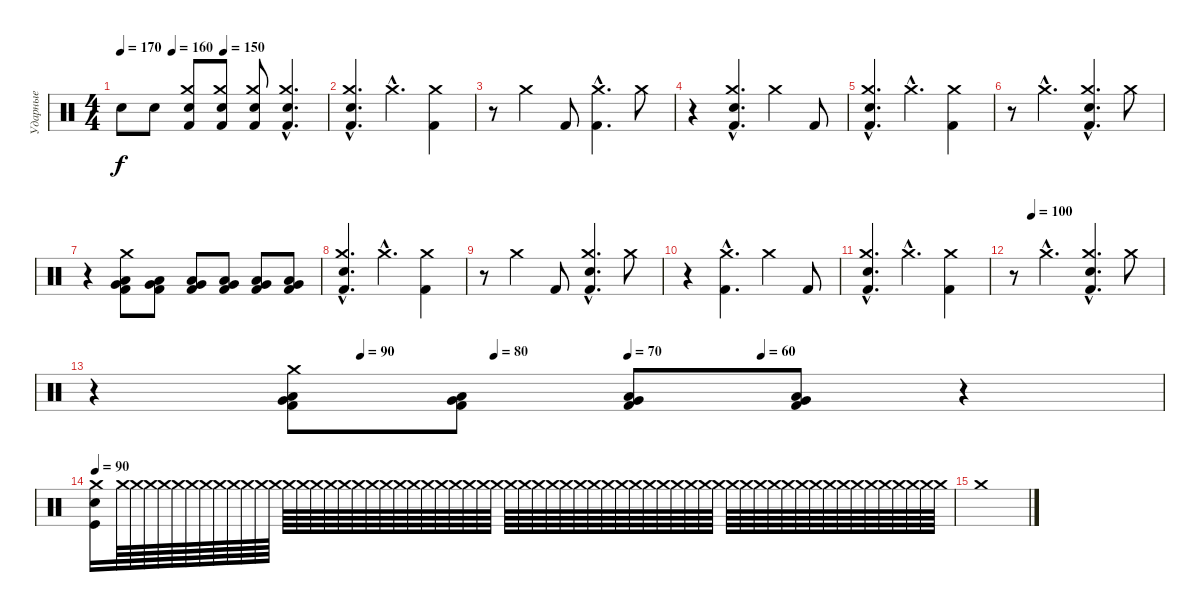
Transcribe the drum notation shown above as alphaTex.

\track ("Ударные" "Ударные") {instrument percussion}
\staff {score}
\articulation defaults
\ts (4 4)
\tempo 170
\tempo (160 0.25)
\tempo (150 0.5)
\clef neutral
\ks c "Snare (hit) 2".8{dy f} "Snare (hit) 2".8
("Crash medium (hit)" "Snare (hit) 2" "Kick (hit) 2").8 ("Crash medium (hit)" "Snare (hit) 2" "Kick (hit) 2").8 ("Crash medium (hit)" "Snare (hit) 2" "Kick (hit) 2").8 ("Crash medium (hit)"{hac} "Snare (hit) 2"{hac} "Kick (hit) 2"{hac}).4{d} |
("Snare (hit) 2"{hac} "Crash medium (hit)"{hac} "Kick (hit) 2"{hac}).4{d} "Crash medium (hit)"{hac}.4{d} ("Crash medium (hit)" "Kick (hit) 2").4 |
r.8 "Crash medium (hit)".4 "Kick (hit) 2".8 ("Crash medium (hit)"{hac} "Kick (hit) 2"{hac}).4{d} "Crash medium (hit)".8 |
r.4 ("Snare (hit) 2"{hac} "Crash medium (hit)"{hac} "Kick (hit) 2"{hac}).4{d} "Crash medium (hit)".4 "Kick (hit) 2".8 |
("Snare (hit) 2"{hac} "Crash medium (hit)"{hac} "Kick (hit) 2"{hac}).4{d} "Crash medium (hit)"{hac}.4{d} ("Crash medium (hit)" "Kick (hit) 2").4 |
r.8 "Crash medium (hit)"{hac}.4{d} ("Snare (hit) 2"{hac} "Crash medium (hit)"{hac} "Kick (hit) 2"{hac}).4{d} "Crash medium (hit)".8 |
r.4 ("Crash medium (hit)" "Low Floor Tom (hit)" "Very Low Tom (hit)" "Kick (hit) 2").8 ("Low Floor Tom (hit)" "Very Low Tom (hit)" "Kick (hit) 2").8 ("Low Floor Tom (hit)" "Very Low Tom (hit)" "Kick (hit) 2").8 ("Low Floor Tom (hit)" "Very Low Tom (hit)" "Kick (hit) 2").8 ("Low Floor Tom (hit)" "Very Low Tom (hit)" "Kick (hit) 2").8 ("Low Floor Tom (hit)" "Very Low Tom (hit)" "Kick (hit) 2").8 |
("Snare (hit) 2"{hac} "Crash medium (hit)"{hac} "Kick (hit) 2"{hac}).4{d} "Crash medium (hit)"{hac}.4{d} ("Crash medium (hit)" "Kick (hit) 2").4 |
r.8 "Crash medium (hit)".4 "Kick (hit) 2".8 ("Snare (hit) 2"{hac} "Crash medium (hit)"{hac} "Kick (hit) 2"{hac}).4{d} "Crash medium (hit)".8 |
r.4 ("Crash medium (hit)"{hac} "Kick (hit) 2"{hac}).4{d} "Crash medium (hit)".4 "Kick (hit) 2".8 |
("Snare (hit) 2"{hac} "Crash medium (hit)"{hac} "Kick (hit) 2"{hac}).4{d} "Crash medium (hit)"{hac}.4{d} ("Crash medium (hit)" "Kick (hit) 2").4 |
\tempo (100 0.125)
r.8 "Crash medium (hit)"{hac}.4{d} ("Snare (hit) 2"{hac} "Crash medium (hit)"{hac} "Kick (hit) 2"{hac}).4{d} "Crash medium (hit)".8 |
\tempo (90 0.25)
\tempo (80 0.375)
\tempo (70 0.5)
\tempo (60 0.625)
r.4 ("Crash medium (hit)" "Low Floor Tom (hit)" "Very Low Tom (hit)" "Kick (hit) 2").8 ("Low Floor Tom (hit)" "Very Low Tom (hit)" "Kick (hit) 2").8 ("Low Floor Tom (hit)" "Very Low Tom (hit)" "Kick (hit) 2").8 ("Low Floor Tom (hit)" "Very Low Tom (hit)" "Kick (hit) 2").8 r.4 |
\tempo 90
("Crash medium (hit)" "Snare (hit) 2" "Kick (hit)").16 "Crash medium (hit)".64 "Crash medium (hit)".64 "Crash medium (hit)".64 "Crash medium (hit)".64 "Crash medium (hit)".64 "Crash medium (hit)".64 "Crash medium (hit)".64 "Crash medium (hit)".64 "Crash medium (hit)".64 "Crash medium (hit)".64 "Crash medium (hit)".64 "Crash medium (hit)".64 "Crash medium (hit)".64 "Crash medium (hit)".64 "Crash medium (hit)".64 "Crash medium (hit)".64 "Crash medium (hit)".64 "Crash medium (hit)".64 "Crash medium (hit)".64 "Crash medium (hit)".64 "Crash medium (hit)".64 "Crash medium (hit)".64 "Crash medium (hit)".64 "Crash medium (hit)".64 "Crash medium (hit)".64 "Crash medium (hit)".64 "Crash medium (hit)".64 "Crash medium (hit)".64 "Crash medium (hit)".64 "Crash medium (hit)".64 "Crash medium (hit)".64 "Crash medium (hit)".64 "Crash medium (hit)".64 "Crash medium (hit)".64 "Crash medium (hit)".64 "Crash medium (hit)".64 "Crash medium (hit)".64 "Crash medium (hit)".64 "Crash medium (hit)".64 "Crash medium (hit)".64 "Crash medium (hit)".64 "Crash medium (hit)".64 "Crash medium (hit)".64 "Crash medium (hit)".64 "Crash medium (hit)".64 "Crash medium (hit)".64 "Crash medium (hit)".64 "Crash medium (hit)".64 "Crash medium (hit)".64 "Crash medium (hit)".64 "Crash medium (hit)".64 "Crash medium (hit)".64 "Crash medium (hit)".64 "Crash medium (hit)".64 "Crash medium (hit)".64 "Crash medium (hit)".64 "Crash medium (hit)".64 "Crash medium (hit)".64 "Crash medium (hit)".64 "Crash medium (hit)".64 |
"Crash medium (hit)".1
